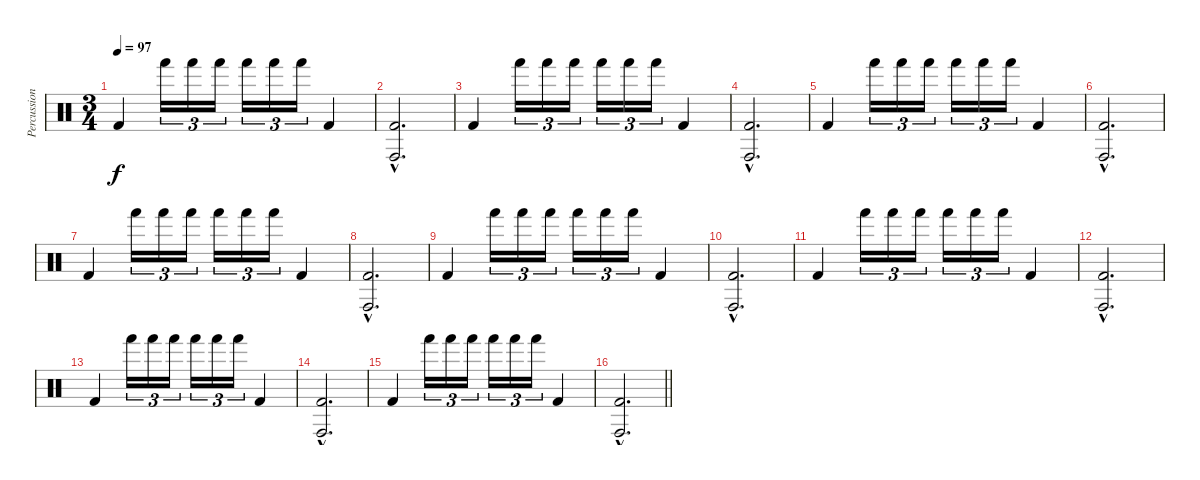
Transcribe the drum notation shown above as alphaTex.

\track ("Percussion" "Percussion") {instrument percussion}
\staff {score}
\articulation defaults
\ts (3 4)
\tempo 97
\tempo 140
\tempo 97
\clef neutral
\ks c "Kick (hit) 2".4{dy f volume 7} "Hand (hit)".16{tu (3 2)} "Hand (hit)".16{tu (3 2)} "Hand (hit)".16{tu (3 2)} "Hand (hit)".16{tu (3 2)} "Hand (hit)".16{tu (3 2)} "Hand (hit)".16{tu (3 2)} "Kick (hit) 2".4
|
("Conga high (hit)"{hac} "Kick (hit) 2"{hac}).2{d} |
"Kick (hit) 2".4 "Hand (hit)".16{tu (3 2)} "Hand (hit)".16{tu (3 2)} "Hand (hit)".16{tu (3 2)} "Hand (hit)".16{tu (3 2)} "Hand (hit)".16{tu (3 2)} "Hand (hit)".16{tu (3 2)} "Kick (hit) 2".4 |
("Conga high (hit)"{hac} "Kick (hit) 2"{hac}).2{d} |
"Kick (hit) 2".4 "Hand (hit)".16{tu (3 2)} "Hand (hit)".16{tu (3 2)} "Hand (hit)".16{tu (3 2)} "Hand (hit)".16{tu (3 2)} "Hand (hit)".16{tu (3 2)} "Hand (hit)".16{tu (3 2)} "Kick (hit) 2".4 |
("Conga high (hit)"{hac} "Kick (hit) 2"{hac}).2{d} |
"Kick (hit) 2".4 "Hand (hit)".16{tu (3 2)} "Hand (hit)".16{tu (3 2)} "Hand (hit)".16{tu (3 2)} "Hand (hit)".16{tu (3 2)} "Hand (hit)".16{tu (3 2)} "Hand (hit)".16{tu (3 2)} "Kick (hit) 2".4 |
("Conga high (hit)"{hac} "Kick (hit) 2"{hac}).2{d} |
"Kick (hit) 2".4 "Hand (hit)".16{tu (3 2)} "Hand (hit)".16{tu (3 2)} "Hand (hit)".16{tu (3 2)} "Hand (hit)".16{tu (3 2)} "Hand (hit)".16{tu (3 2)} "Hand (hit)".16{tu (3 2)} "Kick (hit) 2".4 |
("Conga high (hit)"{hac} "Kick (hit) 2"{hac}).2{d} |
"Kick (hit) 2".4 "Hand (hit)".16{tu (3 2)} "Hand (hit)".16{tu (3 2)} "Hand (hit)".16{tu (3 2)} "Hand (hit)".16{tu (3 2)} "Hand (hit)".16{tu (3 2)} "Hand (hit)".16{tu (3 2)} "Kick (hit) 2".4 |
("Conga high (hit)"{hac} "Kick (hit) 2"{hac}).2{d} |
"Kick (hit) 2".4 "Hand (hit)".16{tu (3 2)} "Hand (hit)".16{tu (3 2)} "Hand (hit)".16{tu (3 2)} "Hand (hit)".16{tu (3 2)} "Hand (hit)".16{tu (3 2)} "Hand (hit)".16{tu (3 2)} "Kick (hit) 2".4 |
("Conga high (hit)"{hac} "Kick (hit) 2"{hac}).2{d} |
"Kick (hit) 2".4 "Hand (hit)".16{tu (3 2)} "Hand (hit)".16{tu (3 2)} "Hand (hit)".16{tu (3 2)} "Hand (hit)".16{tu (3 2)} "Hand (hit)".16{tu (3 2)} "Hand (hit)".16{tu (3 2)} "Kick (hit) 2".4 |
\barLineRight lightlight
("Conga high (hit)"{hac} "Kick (hit) 2"{hac}).2{d}
